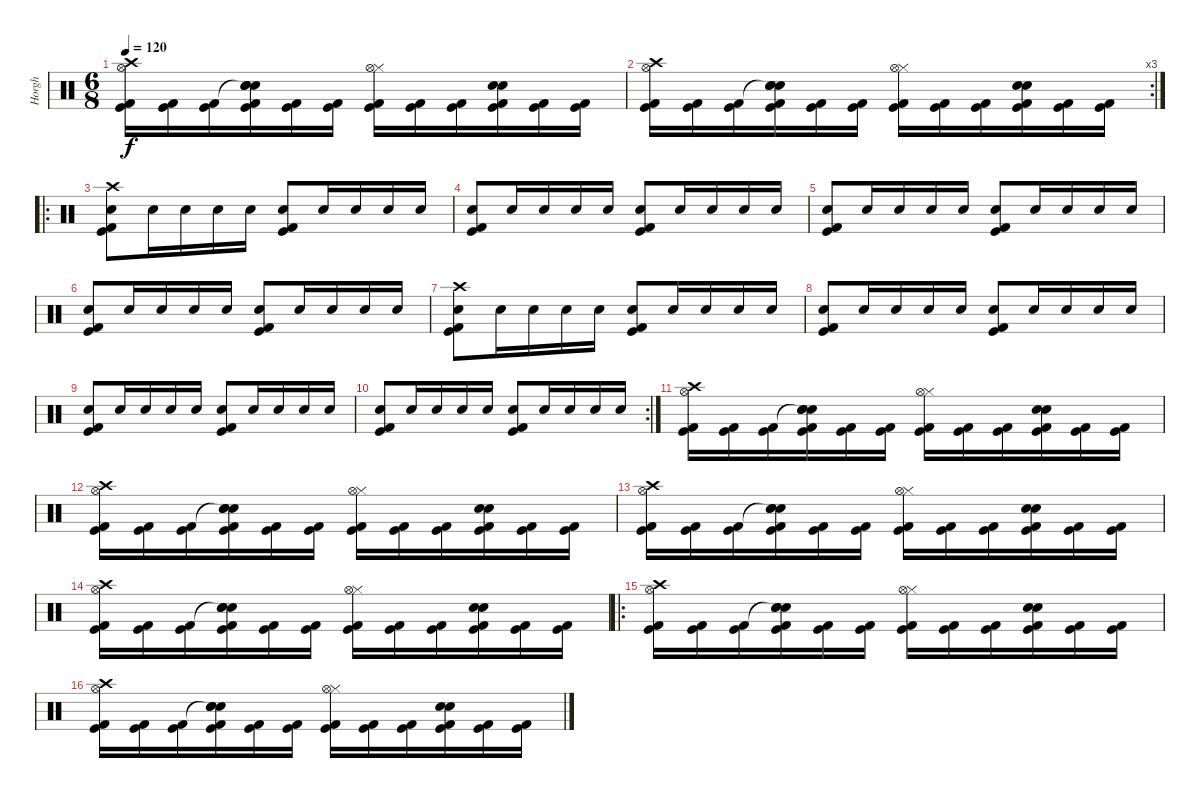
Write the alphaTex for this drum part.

\track ("Horgh" "Horgh") {instrument percussion}
\staff {score}
\articulation defaults
\ts (6 8)
\tempo 120
\clef neutral
\ks c
("Crash high (hit)" "Hi-Hat (open)" "Kick (hit) 2" "Kick (hit)").16{dy f} ("Kick (hit) 2" "Kick (hit)").16 ("Kick (hit) 2" "Kick (hit)").16 ("Snare (hit)"{t} "Snare (hit) 2" "Electric Snare (hit)" "Kick (hit) 2" "Kick (hit)").16 ("Kick (hit) 2" "Kick (hit)").16 ("Kick (hit) 2" "Kick (hit)").16 ("Hi-Hat (closed)" "Hi-Hat (open)" "Kick (hit) 2" "Kick (hit)").16 ("Kick (hit) 2" "Kick (hit)").16 ("Kick (hit) 2" "Kick (hit)").16 ("Snare (hit) 2" "Electric Snare (hit)" "Kick (hit) 2" "Kick (hit)").16 ("Kick (hit) 2" "Kick (hit)").16 ("Kick (hit) 2" "Kick (hit)").16 |
\rc 3
("Crash high (hit)" "Hi-Hat (open)" "Kick (hit) 2" "Kick (hit)").16 ("Kick (hit) 2" "Kick (hit)").16 ("Kick (hit) 2" "Kick (hit)").16 ("Snare (hit)"{t} "Snare (hit) 2" "Electric Snare (hit)" "Kick (hit) 2" "Kick (hit)").16 ("Kick (hit) 2" "Kick (hit)").16 ("Kick (hit) 2" "Kick (hit)").16 ("Hi-Hat (closed)" "Hi-Hat (open)" "Kick (hit) 2" "Kick (hit)").16 ("Kick (hit) 2" "Kick (hit)").16 ("Kick (hit) 2" "Kick (hit)").16 ("Snare (hit) 2" "Electric Snare (hit)" "Kick (hit) 2" "Kick (hit)").16 ("Kick (hit) 2" "Kick (hit)").16 ("Kick (hit) 2" "Kick (hit)").16 |
\ro
("Crash high (hit)" "Electric Snare (hit)" "Kick (hit) 2" "Kick (hit)").8 "Electric Snare (hit)".16 "Electric Snare (hit)".16 "Electric Snare (hit)".16 "Electric Snare (hit)".16 ("Electric Snare (hit)" "Kick (hit) 2" "Kick (hit)").8 "Electric Snare (hit)".16 "Electric Snare (hit)".16 "Electric Snare (hit)".16 "Electric Snare (hit)".16 |
("Electric Snare (hit)" "Kick (hit) 2" "Kick (hit)").8 "Electric Snare (hit)".16 "Electric Snare (hit)".16 "Electric Snare (hit)".16 "Electric Snare (hit)".16 ("Electric Snare (hit)" "Kick (hit) 2" "Kick (hit)").8 "Electric Snare (hit)".16 "Electric Snare (hit)".16 "Electric Snare (hit)".16 "Electric Snare (hit)".16 |
("Electric Snare (hit)" "Kick (hit) 2" "Kick (hit)").8 "Electric Snare (hit)".16 "Electric Snare (hit)".16 "Electric Snare (hit)".16 "Electric Snare (hit)".16 ("Electric Snare (hit)" "Kick (hit) 2" "Kick (hit)").8 "Electric Snare (hit)".16 "Electric Snare (hit)".16 "Electric Snare (hit)".16 "Electric Snare (hit)".16 |
("Electric Snare (hit)" "Kick (hit) 2" "Kick (hit)").8 "Electric Snare (hit)".16 "Electric Snare (hit)".16 "Electric Snare (hit)".16 "Electric Snare (hit)".16 ("Electric Snare (hit)" "Kick (hit) 2" "Kick (hit)").8 "Electric Snare (hit)".16 "Electric Snare (hit)".16 "Electric Snare (hit)".16 "Electric Snare (hit)".16 |
("Crash high (hit)" "Electric Snare (hit)" "Kick (hit) 2" "Kick (hit)").8 "Electric Snare (hit)".16 "Electric Snare (hit)".16 "Electric Snare (hit)".16 "Electric Snare (hit)".16 ("Electric Snare (hit)" "Kick (hit) 2" "Kick (hit)").8 "Electric Snare (hit)".16 "Electric Snare (hit)".16 "Electric Snare (hit)".16 "Electric Snare (hit)".16 |
("Electric Snare (hit)" "Kick (hit) 2" "Kick (hit)").8 "Electric Snare (hit)".16 "Electric Snare (hit)".16 "Electric Snare (hit)".16 "Electric Snare (hit)".16 ("Electric Snare (hit)" "Kick (hit) 2" "Kick (hit)").8 "Electric Snare (hit)".16 "Electric Snare (hit)".16 "Electric Snare (hit)".16 "Electric Snare (hit)".16 |
("Electric Snare (hit)" "Kick (hit) 2" "Kick (hit)").8 "Electric Snare (hit)".16 "Electric Snare (hit)".16 "Electric Snare (hit)".16 "Electric Snare (hit)".16 ("Electric Snare (hit)" "Kick (hit) 2" "Kick (hit)").8 "Electric Snare (hit)".16 "Electric Snare (hit)".16 "Electric Snare (hit)".16 "Electric Snare (hit)".16 |
\rc 2
("Electric Snare (hit)" "Kick (hit) 2" "Kick (hit)").8 "Electric Snare (hit)".16 "Electric Snare (hit)".16 "Electric Snare (hit)".16 "Electric Snare (hit)".16 ("Electric Snare (hit)" "Kick (hit) 2" "Kick (hit)").8 "Electric Snare (hit)".16 "Electric Snare (hit)".16 "Electric Snare (hit)".16 "Electric Snare (hit)".16 |
("Crash high (hit)" "Hi-Hat (open)" "Kick (hit) 2" "Kick (hit)").16 ("Kick (hit) 2" "Kick (hit)").16 ("Kick (hit) 2" "Kick (hit)").16 ("Snare (hit)"{t} "Snare (hit) 2" "Electric Snare (hit)" "Kick (hit) 2" "Kick (hit)").16 ("Kick (hit) 2" "Kick (hit)").16 ("Kick (hit) 2" "Kick (hit)").16 ("Hi-Hat (closed)" "Hi-Hat (open)" "Kick (hit) 2" "Kick (hit)").16 ("Kick (hit) 2" "Kick (hit)").16 ("Kick (hit) 2" "Kick (hit)").16 ("Snare (hit) 2" "Electric Snare (hit)" "Kick (hit) 2" "Kick (hit)").16 ("Kick (hit) 2" "Kick (hit)").16 ("Kick (hit) 2" "Kick (hit)").16 |
("Crash high (hit)" "Hi-Hat (open)" "Kick (hit) 2" "Kick (hit)").16 ("Kick (hit) 2" "Kick (hit)").16 ("Kick (hit) 2" "Kick (hit)").16 ("Snare (hit)"{t} "Snare (hit) 2" "Electric Snare (hit)" "Kick (hit) 2" "Kick (hit)").16 ("Kick (hit) 2" "Kick (hit)").16 ("Kick (hit) 2" "Kick (hit)").16 ("Hi-Hat (closed)" "Hi-Hat (open)" "Kick (hit) 2" "Kick (hit)").16 ("Kick (hit) 2" "Kick (hit)").16 ("Kick (hit) 2" "Kick (hit)").16 ("Snare (hit) 2" "Electric Snare (hit)" "Kick (hit) 2" "Kick (hit)").16 ("Kick (hit) 2" "Kick (hit)").16 ("Kick (hit) 2" "Kick (hit)").16 |
("Crash high (hit)" "Hi-Hat (open)" "Kick (hit) 2" "Kick (hit)").16 ("Kick (hit) 2" "Kick (hit)").16 ("Kick (hit) 2" "Kick (hit)").16 ("Snare (hit)"{t} "Snare (hit) 2" "Electric Snare (hit)" "Kick (hit) 2" "Kick (hit)").16 ("Kick (hit) 2" "Kick (hit)").16 ("Kick (hit) 2" "Kick (hit)").16 ("Hi-Hat (closed)" "Hi-Hat (open)" "Kick (hit) 2" "Kick (hit)").16 ("Kick (hit) 2" "Kick (hit)").16 ("Kick (hit) 2" "Kick (hit)").16 ("Snare (hit) 2" "Electric Snare (hit)" "Kick (hit) 2" "Kick (hit)").16 ("Kick (hit) 2" "Kick (hit)").16 ("Kick (hit) 2" "Kick (hit)").16 |
("Crash high (hit)" "Hi-Hat (open)" "Kick (hit) 2" "Kick (hit)").16 ("Kick (hit) 2" "Kick (hit)").16 ("Kick (hit) 2" "Kick (hit)").16 ("Snare (hit)"{t} "Snare (hit) 2" "Electric Snare (hit)" "Kick (hit) 2" "Kick (hit)").16 ("Kick (hit) 2" "Kick (hit)").16 ("Kick (hit) 2" "Kick (hit)").16 ("Hi-Hat (closed)" "Hi-Hat (open)" "Kick (hit) 2" "Kick (hit)").16 ("Kick (hit) 2" "Kick (hit)").16 ("Kick (hit) 2" "Kick (hit)").16 ("Snare (hit) 2" "Electric Snare (hit)" "Kick (hit) 2" "Kick (hit)").16 ("Kick (hit) 2" "Kick (hit)").16 ("Kick (hit) 2" "Kick (hit)").16 |
\ro
("Crash high (hit)" "Hi-Hat (open)" "Kick (hit) 2" "Kick (hit)").16 ("Kick (hit) 2" "Kick (hit)").16 ("Kick (hit) 2" "Kick (hit)").16 ("Snare (hit)"{t} "Snare (hit) 2" "Electric Snare (hit)" "Kick (hit) 2" "Kick (hit)").16 ("Kick (hit) 2" "Kick (hit)").16 ("Kick (hit) 2" "Kick (hit)").16 ("Hi-Hat (closed)" "Hi-Hat (open)" "Kick (hit) 2" "Kick (hit)").16 ("Kick (hit) 2" "Kick (hit)").16 ("Kick (hit) 2" "Kick (hit)").16 ("Snare (hit) 2" "Electric Snare (hit)" "Kick (hit) 2" "Kick (hit)").16 ("Kick (hit) 2" "Kick (hit)").16 ("Kick (hit) 2" "Kick (hit)").16 |
("Crash high (hit)" "Hi-Hat (open)" "Kick (hit) 2" "Kick (hit)").16 ("Kick (hit) 2" "Kick (hit)").16 ("Kick (hit) 2" "Kick (hit)").16 ("Snare (hit)"{t} "Snare (hit) 2" "Electric Snare (hit)" "Kick (hit) 2" "Kick (hit)").16 ("Kick (hit) 2" "Kick (hit)").16 ("Kick (hit) 2" "Kick (hit)").16 ("Hi-Hat (closed)" "Hi-Hat (open)" "Kick (hit) 2" "Kick (hit)").16 ("Kick (hit) 2" "Kick (hit)").16 ("Kick (hit) 2" "Kick (hit)").16 ("Snare (hit) 2" "Electric Snare (hit)" "Kick (hit) 2" "Kick (hit)").16 ("Kick (hit) 2" "Kick (hit)").16 ("Kick (hit) 2" "Kick (hit)").16
